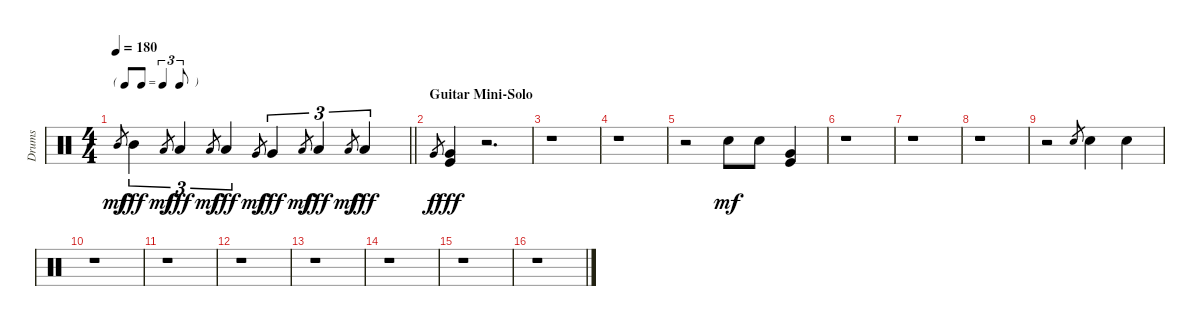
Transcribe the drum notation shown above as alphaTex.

\track ("Drums" "Drums") {instrument percussion}
\staff {score}
\articulation defaults
\ts (4 4)
\tf triplet8th
\tempo 180
\clef neutral
\barLineRight lightlight
\ks c "Mid Tom (hit)".8{gr dy mf} "Mid Tom (hit)".4{tu (3 2) dy fff} "Low Tom (hit)".8{gr dy mf} "Low Tom (hit)".4{tu (3 2) dy fff} "Low Tom (hit)".8{gr dy mf} "Low Tom (hit)".4{tu (3 2) dy fff} "Very Low Tom (hit)".8{gr dy mf} "Very Low Tom (hit)".4{tu (3 2) dy fff} "Low Floor Tom (hit)".8{gr dy mf} "Low Floor Tom (hit)".4{tu (3 2) dy fff} "Low Floor Tom (hit)".8{gr dy mf} "Low Floor Tom (hit)".4{tu (3 2) dy fff}
|
\section ("" "Guitar Mini-Solo")
"Very Low Tom (hit)".8{gr dy f} ("Kick (hit)" "Very Low Tom (hit)").4{dy fff} r.2{d} |
r.1 |
r.1 |
r.2 "Snare (hit) 2".8{dy mf} "Snare (hit) 2".8 ("Kick (hit)" "Very Low Tom (hit)").4 |
r.1 |
r.1 |
r.1 |
r.2 "Snare (hit) 2".8{gr} "Snare (hit) 2".4 "Electric Snare (hit)".4 |
r.1 |
r.1 |
r.1 |
r.1 |
r.1 |
r.1 |
r.1
